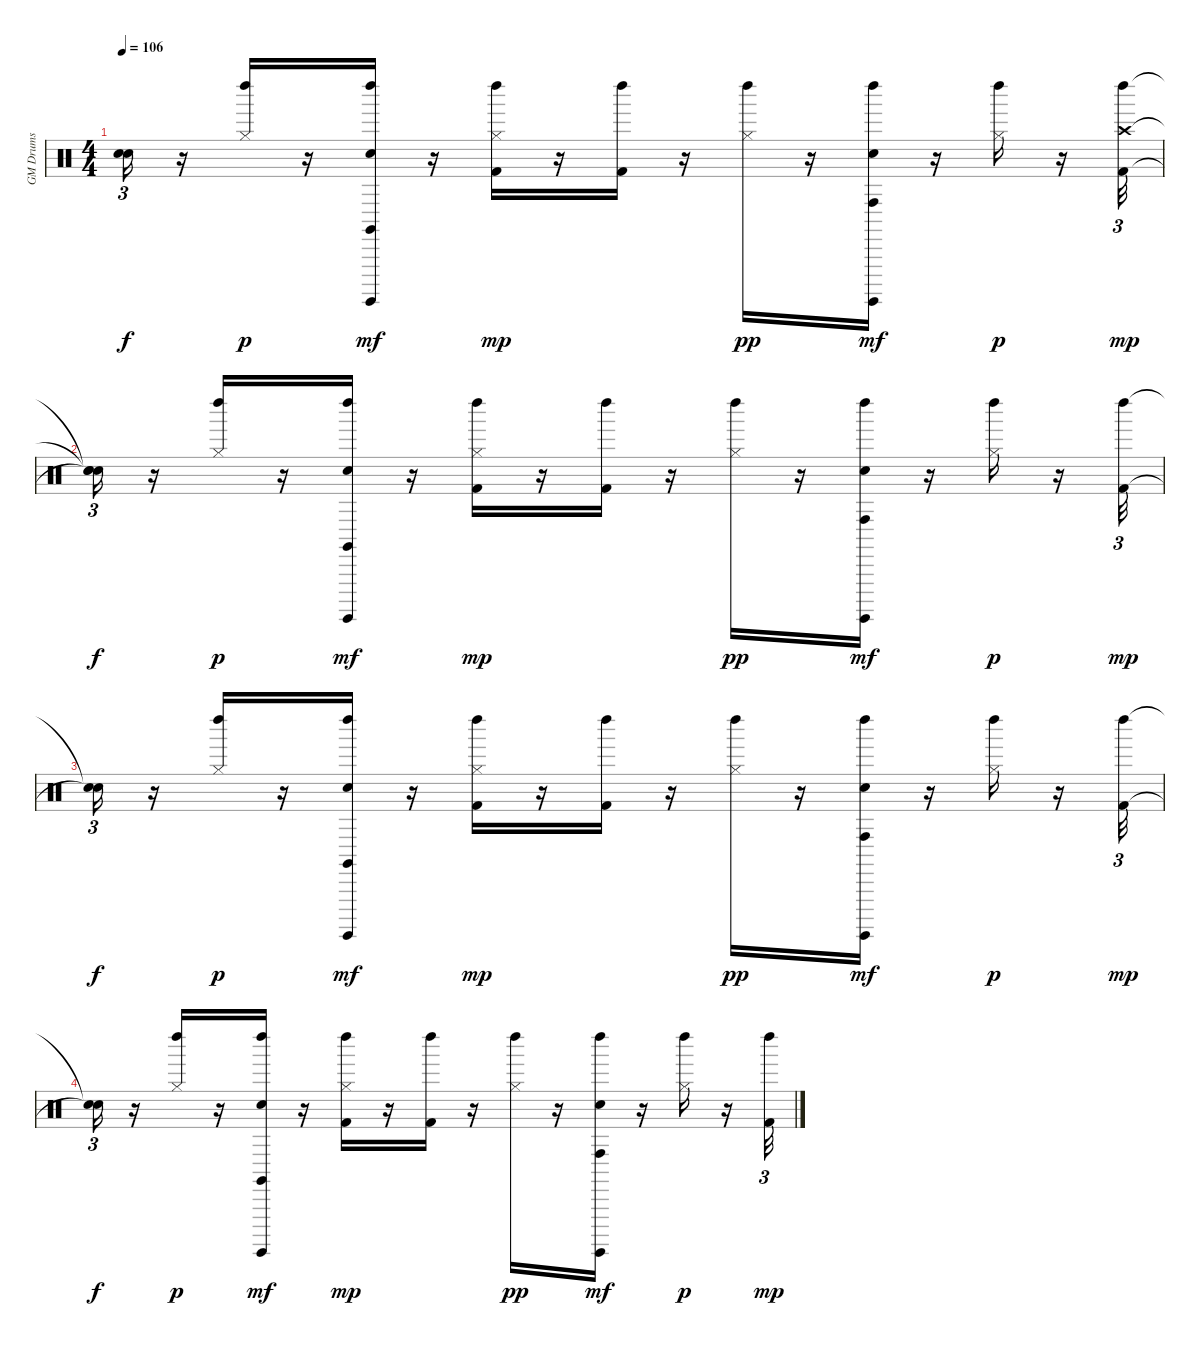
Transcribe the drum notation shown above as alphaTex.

\track ("GM Drums" "GM Drums") {instrument percussion}
\staff {score}
\articulation defaults
\ts (4 4)
\tempo 106
\clef neutral
\ks c
("Snare (hit)"{t} "Snare (hit)"{t}).16{tu (3 2) dy f} r.16 ("Hi-Hat (closed)" "Left Maraca (hit)").16{dy p} r.16 ("Hand Clap (hit)" "Left Maraca (hit)" "Claves (hit)" "Surdo (hit)").16{dy mf} r.16 ("Kick (hit) 2" "Hi-Hat (closed)" "Left Maraca (hit)").16{dy mp} r.16 ("Kick (hit) 2" "Left Maraca (hit)").16 r.16 ("Hi-Hat (closed)" "Left Maraca (hit)").16{dy pp} r.16 ("Hand Clap (hit)" "Conga high (hit)" "Left Maraca (hit)" "Surdo (hit)").16{dy mf} r.16 ("Hi-Hat (closed)" "Left Maraca (hit)").16{dy p} r.16 ("Kick (hit) 2" "Crash high (hit)" "Left Maraca (hit)").32{tu (3 2) dy mp} |
("Snare (hit)"{t} "Snare (hit)"{t} "Snare (hit)"{t}).16{tu (3 2) dy f} r.16 ("Hi-Hat (closed)" "Left Maraca (hit)").16{dy p} r.16 ("Hand Clap (hit)" "Left Maraca (hit)" "Claves (hit)" "Surdo (hit)").16{dy mf} r.16 ("Kick (hit) 2" "Hi-Hat (closed)" "Left Maraca (hit)").16{dy mp} r.16 ("Kick (hit) 2" "Left Maraca (hit)").16 r.16 ("Hi-Hat (closed)" "Left Maraca (hit)").16{dy pp} r.16 ("Hand Clap (hit)" "Conga high (hit)" "Left Maraca (hit)" "Surdo (hit)").16{dy mf} r.16 ("Hi-Hat (closed)" "Left Maraca (hit)").16{dy p} r.16 ("Kick (hit) 2" "Left Maraca (hit)").32{tu (3 2) dy mp} |
("Snare (hit)"{t} "Snare (hit)"{t}).16{tu (3 2) dy f} r.16 ("Hi-Hat (closed)" "Left Maraca (hit)").16{dy p} r.16 ("Hand Clap (hit)" "Left Maraca (hit)" "Claves (hit)" "Surdo (hit)").16{dy mf} r.16 ("Kick (hit) 2" "Hi-Hat (closed)" "Left Maraca (hit)").16{dy mp} r.16 ("Kick (hit) 2" "Left Maraca (hit)").16 r.16 ("Hi-Hat (closed)" "Left Maraca (hit)").16{dy pp} r.16 ("Hand Clap (hit)" "Conga high (hit)" "Left Maraca (hit)" "Surdo (hit)").16{dy mf} r.16 ("Hi-Hat (closed)" "Left Maraca (hit)").16{dy p} r.16 ("Kick (hit) 2" "Left Maraca (hit)").32{tu (3 2) dy mp} |
("Snare (hit)"{t} "Snare (hit)"{t}).16{tu (3 2) dy f} r.16 ("Hi-Hat (closed)" "Left Maraca (hit)").16{dy p} r.16 ("Hand Clap (hit)" "Left Maraca (hit)" "Claves (hit)" "Surdo (hit)").16{dy mf} r.16 ("Kick (hit) 2" "Hi-Hat (closed)" "Left Maraca (hit)").16{dy mp} r.16 ("Kick (hit) 2" "Left Maraca (hit)").16 r.16 ("Hi-Hat (closed)" "Left Maraca (hit)").16{dy pp} r.16 ("Hand Clap (hit)" "Conga high (hit)" "Left Maraca (hit)" "Surdo (hit)").16{dy mf} r.16 ("Hi-Hat (closed)" "Left Maraca (hit)").16{dy p} r.16 ("Kick (hit) 2" "Left Maraca (hit)").32{tu (3 2) dy mp}
